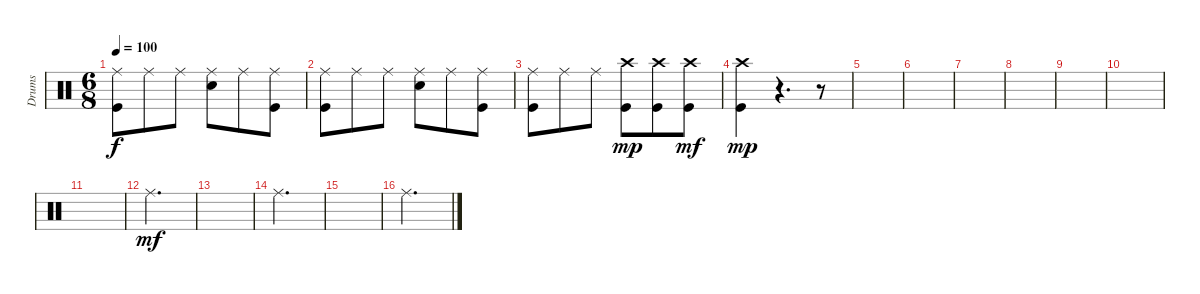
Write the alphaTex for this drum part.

\track ("Drums" "Drums") {instrument percussion}
\staff {score}
\articulation defaults
\ts (6 8)
\tempo 100
\clef neutral
\ks c
("Ride (middle)" "Kick (hit)").8{dy f} "Ride (middle)".8 "Ride (middle)".8 ("Ride (middle)" "Electric Snare (hit)").8 "Ride (middle)".8 ("Ride (middle)" "Kick (hit)").8 |
("Ride (middle)" "Kick (hit)").8 "Ride (middle)".8 "Ride (middle)".8 ("Ride (middle)" "Electric Snare (hit)").8 "Ride (middle)".8 ("Ride (middle)" "Kick (hit)").8 |
("Ride (middle)" "Kick (hit)").8 "Ride (middle)".8 "Ride (middle)".8 ("Crash high (hit)" "Kick (hit)").8{dy mp} ("Crash high (hit)" "Kick (hit)").8 ("Crash high (hit)" "Kick (hit)").8{dy mf} |
("Crash high (hit)" "Kick (hit)").4{dy mp} r.4{d} r.8 |
|
|
|
|
|
|
|
"Ride (middle)".2{d dy mf} |
|
"Ride (middle)".2{d} |
|
"Ride (middle)".2{d}
